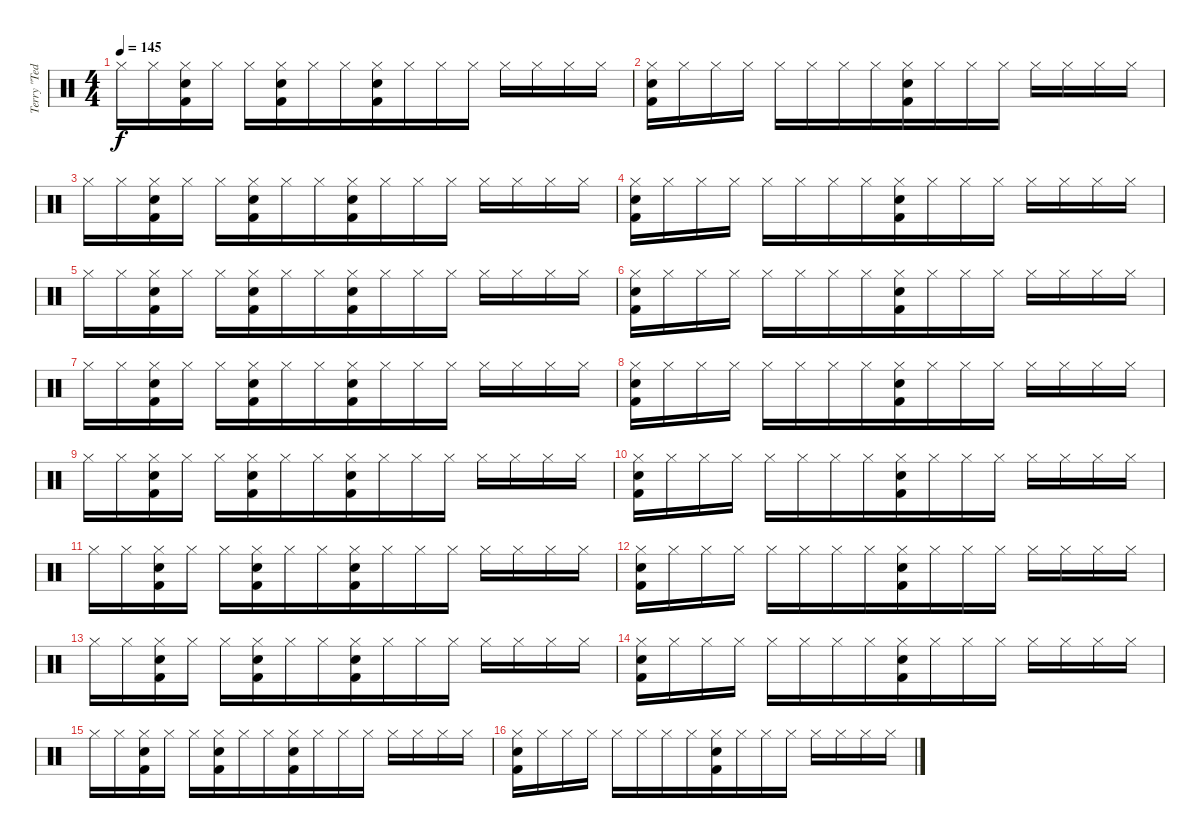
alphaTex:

\track ("Terry \"Ted\" Bozzio" "Terry \"Ted") {instrument percussion}
\staff {score}
\articulation defaults
\ts (4 4)
\tempo 145
\clef neutral
\ks c "Hi-Hat (closed)".16{dy f} "Hi-Hat (closed)".16{beam merge}
("Hi-Hat (closed)" "Electric Snare (hit)" "Kick (hit) 2").16 "Hi-Hat (closed)".16 "Hi-Hat (closed)".16 ("Hi-Hat (closed)" "Electric Snare (hit)" "Kick (hit) 2").16 "Hi-Hat (closed)".16 "Hi-Hat (closed)".16{beam merge} ("Hi-Hat (closed)" "Electric Snare (hit)" "Kick (hit) 2").16 "Hi-Hat (closed)".16 "Hi-Hat (closed)".16 "Hi-Hat (closed)".16 "Hi-Hat (closed)".16 "Hi-Hat (closed)".16 "Hi-Hat (closed)".16{beam merge} "Hi-Hat (closed)".16 |
("Hi-Hat (closed)" "Electric Snare (hit)" "Kick (hit) 2").16 "Hi-Hat (closed)".16{beam merge} "Hi-Hat (closed)".16 "Hi-Hat (closed)".16 "Hi-Hat (closed)".16 "Hi-Hat (closed)".16 "Hi-Hat (closed)".16 "Hi-Hat (closed)".16{beam merge} ("Hi-Hat (closed)" "Electric Snare (hit)" "Kick (hit) 2").16 "Hi-Hat (closed)".16 "Hi-Hat (closed)".16 "Hi-Hat (closed)".16 "Hi-Hat (closed)".16 "Hi-Hat (closed)".16 "Hi-Hat (closed)".16{beam merge} "Hi-Hat (closed)".16 |
"Hi-Hat (closed)".16 "Hi-Hat (closed)".16{beam merge} ("Hi-Hat (closed)" "Electric Snare (hit)" "Kick (hit) 2").16 "Hi-Hat (closed)".16 "Hi-Hat (closed)".16 ("Hi-Hat (closed)" "Electric Snare (hit)" "Kick (hit) 2").16 "Hi-Hat (closed)".16 "Hi-Hat (closed)".16{beam merge} ("Hi-Hat (closed)" "Electric Snare (hit)" "Kick (hit) 2").16 "Hi-Hat (closed)".16 "Hi-Hat (closed)".16 "Hi-Hat (closed)".16 "Hi-Hat (closed)".16 "Hi-Hat (closed)".16 "Hi-Hat (closed)".16{beam merge} "Hi-Hat (closed)".16 |
("Hi-Hat (closed)" "Electric Snare (hit)" "Kick (hit) 2").16 "Hi-Hat (closed)".16{beam merge} "Hi-Hat (closed)".16 "Hi-Hat (closed)".16 "Hi-Hat (closed)".16 "Hi-Hat (closed)".16 "Hi-Hat (closed)".16 "Hi-Hat (closed)".16{beam merge} ("Hi-Hat (closed)" "Electric Snare (hit)" "Kick (hit) 2").16 "Hi-Hat (closed)".16 "Hi-Hat (closed)".16 "Hi-Hat (closed)".16 "Hi-Hat (closed)".16 "Hi-Hat (closed)".16 "Hi-Hat (closed)".16{beam merge} "Hi-Hat (closed)".16 |
"Hi-Hat (closed)".16 "Hi-Hat (closed)".16{beam merge} ("Hi-Hat (closed)" "Electric Snare (hit)" "Kick (hit) 2").16 "Hi-Hat (closed)".16 "Hi-Hat (closed)".16 ("Hi-Hat (closed)" "Electric Snare (hit)" "Kick (hit) 2").16 "Hi-Hat (closed)".16 "Hi-Hat (closed)".16{beam merge} ("Hi-Hat (closed)" "Electric Snare (hit)" "Kick (hit) 2").16 "Hi-Hat (closed)".16 "Hi-Hat (closed)".16 "Hi-Hat (closed)".16 "Hi-Hat (closed)".16 "Hi-Hat (closed)".16 "Hi-Hat (closed)".16{beam merge} "Hi-Hat (closed)".16 |
("Hi-Hat (closed)" "Electric Snare (hit)" "Kick (hit) 2").16 "Hi-Hat (closed)".16{beam merge} "Hi-Hat (closed)".16 "Hi-Hat (closed)".16 "Hi-Hat (closed)".16 "Hi-Hat (closed)".16 "Hi-Hat (closed)".16 "Hi-Hat (closed)".16{beam merge} ("Hi-Hat (closed)" "Electric Snare (hit)" "Kick (hit) 2").16 "Hi-Hat (closed)".16 "Hi-Hat (closed)".16 "Hi-Hat (closed)".16 "Hi-Hat (closed)".16 "Hi-Hat (closed)".16 "Hi-Hat (closed)".16{beam merge} "Hi-Hat (closed)".16 |
"Hi-Hat (closed)".16 "Hi-Hat (closed)".16{beam merge} ("Hi-Hat (closed)" "Electric Snare (hit)" "Kick (hit) 2").16 "Hi-Hat (closed)".16 "Hi-Hat (closed)".16 ("Hi-Hat (closed)" "Electric Snare (hit)" "Kick (hit) 2").16 "Hi-Hat (closed)".16 "Hi-Hat (closed)".16{beam merge} ("Hi-Hat (closed)" "Electric Snare (hit)" "Kick (hit) 2").16 "Hi-Hat (closed)".16 "Hi-Hat (closed)".16 "Hi-Hat (closed)".16 "Hi-Hat (closed)".16 "Hi-Hat (closed)".16 "Hi-Hat (closed)".16{beam merge} "Hi-Hat (closed)".16 |
("Hi-Hat (closed)" "Electric Snare (hit)" "Kick (hit) 2").16 "Hi-Hat (closed)".16{beam merge} "Hi-Hat (closed)".16 "Hi-Hat (closed)".16 "Hi-Hat (closed)".16 "Hi-Hat (closed)".16 "Hi-Hat (closed)".16 "Hi-Hat (closed)".16{beam merge} ("Hi-Hat (closed)" "Electric Snare (hit)" "Kick (hit) 2").16 "Hi-Hat (closed)".16 "Hi-Hat (closed)".16 "Hi-Hat (closed)".16 "Hi-Hat (closed)".16 "Hi-Hat (closed)".16 "Hi-Hat (closed)".16{beam merge} "Hi-Hat (closed)".16 |
"Hi-Hat (closed)".16 "Hi-Hat (closed)".16{beam merge} ("Hi-Hat (closed)" "Electric Snare (hit)" "Kick (hit) 2").16 "Hi-Hat (closed)".16 "Hi-Hat (closed)".16 ("Hi-Hat (closed)" "Electric Snare (hit)" "Kick (hit) 2").16 "Hi-Hat (closed)".16 "Hi-Hat (closed)".16{beam merge} ("Hi-Hat (closed)" "Electric Snare (hit)" "Kick (hit) 2").16 "Hi-Hat (closed)".16 "Hi-Hat (closed)".16 "Hi-Hat (closed)".16 "Hi-Hat (closed)".16 "Hi-Hat (closed)".16 "Hi-Hat (closed)".16{beam merge} "Hi-Hat (closed)".16 |
("Hi-Hat (closed)" "Electric Snare (hit)" "Kick (hit) 2").16 "Hi-Hat (closed)".16{beam merge} "Hi-Hat (closed)".16 "Hi-Hat (closed)".16 "Hi-Hat (closed)".16 "Hi-Hat (closed)".16 "Hi-Hat (closed)".16 "Hi-Hat (closed)".16{beam merge} ("Hi-Hat (closed)" "Electric Snare (hit)" "Kick (hit) 2").16 "Hi-Hat (closed)".16 "Hi-Hat (closed)".16 "Hi-Hat (closed)".16 "Hi-Hat (closed)".16 "Hi-Hat (closed)".16 "Hi-Hat (closed)".16{beam merge} "Hi-Hat (closed)".16 |
"Hi-Hat (closed)".16 "Hi-Hat (closed)".16{beam merge} ("Hi-Hat (closed)" "Electric Snare (hit)" "Kick (hit) 2").16 "Hi-Hat (closed)".16 "Hi-Hat (closed)".16 ("Hi-Hat (closed)" "Electric Snare (hit)" "Kick (hit) 2").16 "Hi-Hat (closed)".16 "Hi-Hat (closed)".16{beam merge} ("Hi-Hat (closed)" "Electric Snare (hit)" "Kick (hit) 2").16 "Hi-Hat (closed)".16 "Hi-Hat (closed)".16 "Hi-Hat (closed)".16 "Hi-Hat (closed)".16 "Hi-Hat (closed)".16 "Hi-Hat (closed)".16{beam merge} "Hi-Hat (closed)".16 |
("Hi-Hat (closed)" "Electric Snare (hit)" "Kick (hit) 2").16 "Hi-Hat (closed)".16{beam merge} "Hi-Hat (closed)".16 "Hi-Hat (closed)".16 "Hi-Hat (closed)".16 "Hi-Hat (closed)".16 "Hi-Hat (closed)".16 "Hi-Hat (closed)".16{beam merge} ("Hi-Hat (closed)" "Electric Snare (hit)" "Kick (hit) 2").16 "Hi-Hat (closed)".16 "Hi-Hat (closed)".16 "Hi-Hat (closed)".16 "Hi-Hat (closed)".16 "Hi-Hat (closed)".16 "Hi-Hat (closed)".16{beam merge} "Hi-Hat (closed)".16 |
"Hi-Hat (closed)".16 "Hi-Hat (closed)".16{beam merge} ("Hi-Hat (closed)" "Electric Snare (hit)" "Kick (hit) 2").16 "Hi-Hat (closed)".16 "Hi-Hat (closed)".16 ("Hi-Hat (closed)" "Electric Snare (hit)" "Kick (hit) 2").16 "Hi-Hat (closed)".16 "Hi-Hat (closed)".16{beam merge} ("Hi-Hat (closed)" "Electric Snare (hit)" "Kick (hit) 2").16 "Hi-Hat (closed)".16 "Hi-Hat (closed)".16 "Hi-Hat (closed)".16 "Hi-Hat (closed)".16 "Hi-Hat (closed)".16 "Hi-Hat (closed)".16{beam merge} "Hi-Hat (closed)".16 |
("Hi-Hat (closed)" "Electric Snare (hit)" "Kick (hit) 2").16 "Hi-Hat (closed)".16{beam merge} "Hi-Hat (closed)".16 "Hi-Hat (closed)".16 "Hi-Hat (closed)".16 "Hi-Hat (closed)".16 "Hi-Hat (closed)".16 "Hi-Hat (closed)".16{beam merge} ("Hi-Hat (closed)" "Electric Snare (hit)" "Kick (hit) 2").16 "Hi-Hat (closed)".16 "Hi-Hat (closed)".16 "Hi-Hat (closed)".16 "Hi-Hat (closed)".16 "Hi-Hat (closed)".16 "Hi-Hat (closed)".16{beam merge} "Hi-Hat (closed)".16 |
"Hi-Hat (closed)".16 "Hi-Hat (closed)".16{beam merge} ("Hi-Hat (closed)" "Electric Snare (hit)" "Kick (hit) 2").16 "Hi-Hat (closed)".16 "Hi-Hat (closed)".16 ("Hi-Hat (closed)" "Electric Snare (hit)" "Kick (hit) 2").16 "Hi-Hat (closed)".16 "Hi-Hat (closed)".16{beam merge} ("Hi-Hat (closed)" "Electric Snare (hit)" "Kick (hit) 2").16 "Hi-Hat (closed)".16 "Hi-Hat (closed)".16 "Hi-Hat (closed)".16 "Hi-Hat (closed)".16 "Hi-Hat (closed)".16 "Hi-Hat (closed)".16{beam merge} "Hi-Hat (closed)".16 |
("Hi-Hat (closed)" "Electric Snare (hit)" "Kick (hit) 2").16 "Hi-Hat (closed)".16{beam merge} "Hi-Hat (closed)".16 "Hi-Hat (closed)".16 "Hi-Hat (closed)".16 "Hi-Hat (closed)".16 "Hi-Hat (closed)".16 "Hi-Hat (closed)".16{beam merge} ("Hi-Hat (closed)" "Electric Snare (hit)" "Kick (hit) 2").16 "Hi-Hat (closed)".16 "Hi-Hat (closed)".16 "Hi-Hat (closed)".16 "Hi-Hat (closed)".16 "Hi-Hat (closed)".16 "Hi-Hat (closed)".16{beam merge} "Hi-Hat (closed)".16
